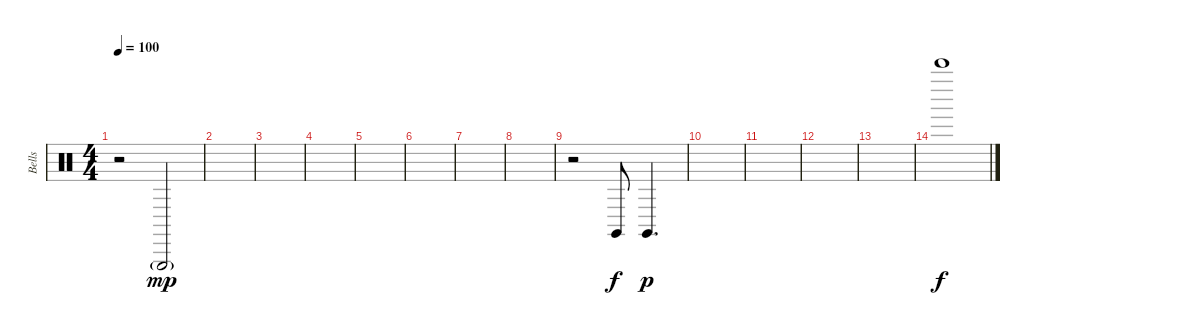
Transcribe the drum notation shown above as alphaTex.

\track ("Bells" "Bells") {instrument percussion}
\staff {score}
\articulation defaults
\ts (4 4)
\tempo 100
\clef neutral
\ks c
r.2{dy f} "Triangle (hit)"{g}.2{dy mp} |
|
|
|
|
|
|
|
r.2 "Claves (hit)".8{dy f} "Claves (hit)".4{d dy p} |
|
|
|
|
"Bell Tree (hit)".1{dy f}
